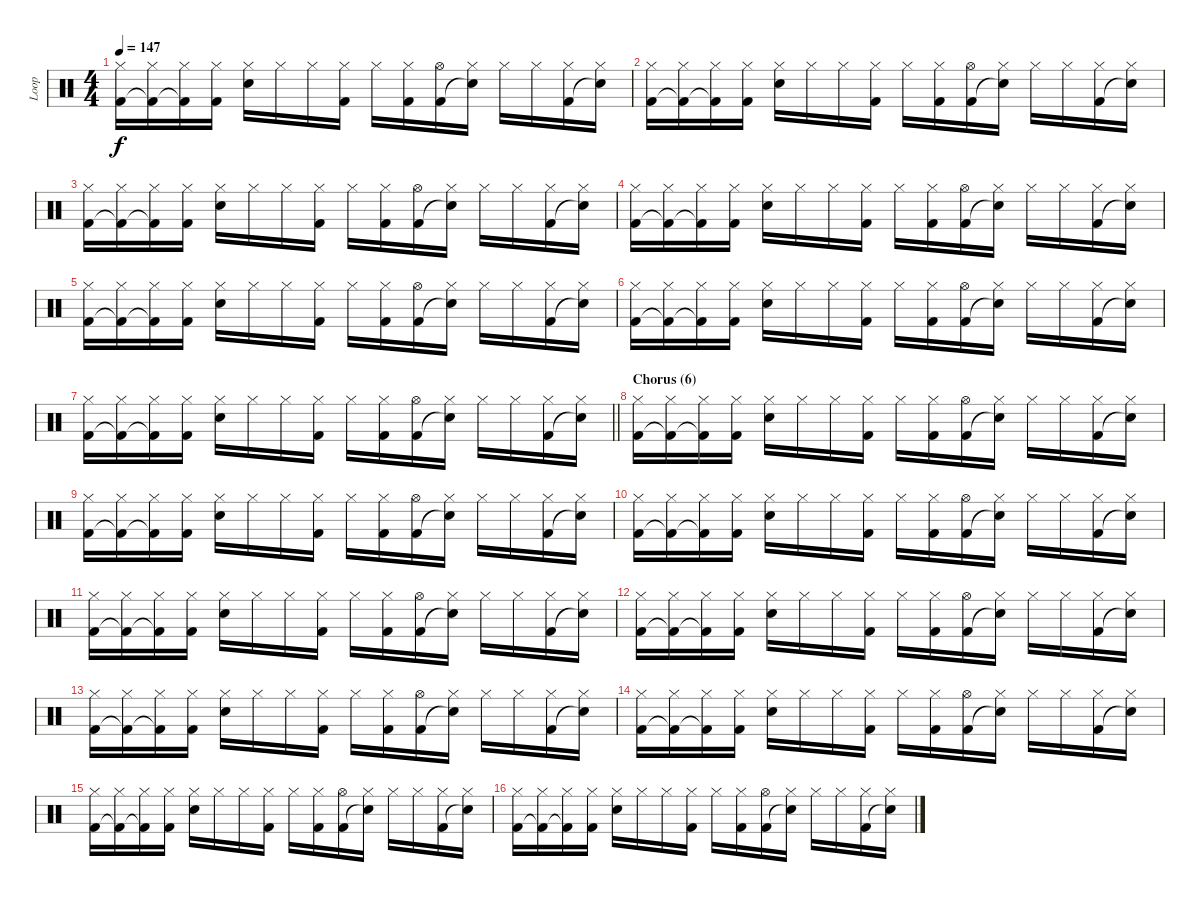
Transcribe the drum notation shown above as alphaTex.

\track ("Loop" "Loop") {instrument percussion}
\staff {score}
\articulation defaults
\ts (4 4)
\tempo 147
\clef neutral
\ks aminor
("Hi-Hat (closed)" "Kick (hit) 2").16{dy f} ("Hi-Hat (closed)" "Kick (hit) 2"{t}).16 ("Hi-Hat (closed)" "Kick (hit) 2"{t}).16 ("Hi-Hat (closed)" "Kick (hit) 2").16 ("Hi-Hat (closed)" "Electric Snare (hit)").16 "Hi-Hat (closed)".16 "Hi-Hat (closed)".16 ("Hi-Hat (closed)" "Kick (hit) 2").16 "Hi-Hat (closed)".16 ("Hi-Hat (closed)" "Kick (hit) 2").16 ("Hi-Hat (open)" "Kick (hit) 2").16 ("Hi-Hat (closed)" "Snare (hit)"{t}).16 "Hi-Hat (closed)".16 "Hi-Hat (closed)".16 ("Hi-Hat (closed)" "Kick (hit) 2").16 ("Hi-Hat (closed)" "Snare (hit)"{t}).16 |
("Hi-Hat (closed)" "Kick (hit) 2").16 ("Hi-Hat (closed)" "Kick (hit) 2"{t}).16 ("Hi-Hat (closed)" "Kick (hit) 2"{t}).16 ("Hi-Hat (closed)" "Kick (hit) 2").16 ("Hi-Hat (closed)" "Electric Snare (hit)").16 "Hi-Hat (closed)".16 "Hi-Hat (closed)".16 ("Hi-Hat (closed)" "Kick (hit) 2").16 "Hi-Hat (closed)".16 ("Hi-Hat (closed)" "Kick (hit) 2").16 ("Hi-Hat (open)" "Kick (hit) 2").16 ("Hi-Hat (closed)" "Snare (hit)"{t}).16 "Hi-Hat (closed)".16 "Hi-Hat (closed)".16 ("Hi-Hat (closed)" "Kick (hit) 2").16 ("Hi-Hat (closed)" "Snare (hit)"{t}).16 |
("Hi-Hat (closed)" "Kick (hit) 2").16 ("Hi-Hat (closed)" "Kick (hit) 2"{t}).16 ("Hi-Hat (closed)" "Kick (hit) 2"{t}).16 ("Hi-Hat (closed)" "Kick (hit) 2").16 ("Hi-Hat (closed)" "Electric Snare (hit)").16 "Hi-Hat (closed)".16 "Hi-Hat (closed)".16 ("Hi-Hat (closed)" "Kick (hit) 2").16 "Hi-Hat (closed)".16 ("Hi-Hat (closed)" "Kick (hit) 2").16 ("Hi-Hat (open)" "Kick (hit) 2").16 ("Hi-Hat (closed)" "Snare (hit)"{t}).16 "Hi-Hat (closed)".16 "Hi-Hat (closed)".16 ("Hi-Hat (closed)" "Kick (hit) 2").16 ("Hi-Hat (closed)" "Snare (hit)"{t}).16 |
("Hi-Hat (closed)" "Kick (hit) 2").16 ("Hi-Hat (closed)" "Kick (hit) 2"{t}).16 ("Hi-Hat (closed)" "Kick (hit) 2"{t}).16 ("Hi-Hat (closed)" "Kick (hit) 2").16 ("Hi-Hat (closed)" "Electric Snare (hit)").16 "Hi-Hat (closed)".16 "Hi-Hat (closed)".16 ("Hi-Hat (closed)" "Kick (hit) 2").16 "Hi-Hat (closed)".16 ("Hi-Hat (closed)" "Kick (hit) 2").16 ("Hi-Hat (open)" "Kick (hit) 2").16 ("Hi-Hat (closed)" "Snare (hit)"{t}).16 "Hi-Hat (closed)".16 "Hi-Hat (closed)".16 ("Hi-Hat (closed)" "Kick (hit) 2").16 ("Hi-Hat (closed)" "Snare (hit)"{t}).16 |
("Hi-Hat (closed)" "Kick (hit) 2").16 ("Hi-Hat (closed)" "Kick (hit) 2"{t}).16 ("Hi-Hat (closed)" "Kick (hit) 2"{t}).16 ("Hi-Hat (closed)" "Kick (hit) 2").16 ("Hi-Hat (closed)" "Electric Snare (hit)").16 "Hi-Hat (closed)".16 "Hi-Hat (closed)".16 ("Hi-Hat (closed)" "Kick (hit) 2").16 "Hi-Hat (closed)".16 ("Hi-Hat (closed)" "Kick (hit) 2").16 ("Hi-Hat (open)" "Kick (hit) 2").16 ("Hi-Hat (closed)" "Snare (hit)"{t}).16 "Hi-Hat (closed)".16 "Hi-Hat (closed)".16 ("Hi-Hat (closed)" "Kick (hit) 2").16 ("Hi-Hat (closed)" "Snare (hit)"{t}).16 |
("Hi-Hat (closed)" "Kick (hit) 2").16 ("Hi-Hat (closed)" "Kick (hit) 2"{t}).16 ("Hi-Hat (closed)" "Kick (hit) 2"{t}).16 ("Hi-Hat (closed)" "Kick (hit) 2").16 ("Hi-Hat (closed)" "Electric Snare (hit)").16 "Hi-Hat (closed)".16 "Hi-Hat (closed)".16 ("Hi-Hat (closed)" "Kick (hit) 2").16 "Hi-Hat (closed)".16 ("Hi-Hat (closed)" "Kick (hit) 2").16 ("Hi-Hat (open)" "Kick (hit) 2").16 ("Hi-Hat (closed)" "Snare (hit)"{t}).16 "Hi-Hat (closed)".16 "Hi-Hat (closed)".16 ("Hi-Hat (closed)" "Kick (hit) 2").16 ("Hi-Hat (closed)" "Snare (hit)"{t}).16 |
\barLineRight lightlight
("Hi-Hat (closed)" "Kick (hit) 2").16 ("Hi-Hat (closed)" "Kick (hit) 2"{t}).16 ("Hi-Hat (closed)" "Kick (hit) 2"{t}).16 ("Hi-Hat (closed)" "Kick (hit) 2").16 ("Hi-Hat (closed)" "Electric Snare (hit)").16 "Hi-Hat (closed)".16 "Hi-Hat (closed)".16 ("Hi-Hat (closed)" "Kick (hit) 2").16 "Hi-Hat (closed)".16 ("Hi-Hat (closed)" "Kick (hit) 2").16 ("Hi-Hat (open)" "Kick (hit) 2").16 ("Hi-Hat (closed)" "Snare (hit)"{t}).16 "Hi-Hat (closed)".16 "Hi-Hat (closed)".16 ("Hi-Hat (closed)" "Kick (hit) 2").16 ("Hi-Hat (closed)" "Snare (hit)"{t}).16 |
\section ("" "Chorus (6)")
("Hi-Hat (closed)" "Kick (hit) 2").16 ("Hi-Hat (closed)" "Kick (hit) 2"{t}).16 ("Hi-Hat (closed)" "Kick (hit) 2"{t}).16 ("Hi-Hat (closed)" "Kick (hit) 2").16 ("Hi-Hat (closed)" "Electric Snare (hit)").16 "Hi-Hat (closed)".16 "Hi-Hat (closed)".16 ("Hi-Hat (closed)" "Kick (hit) 2").16 "Hi-Hat (closed)".16 ("Hi-Hat (closed)" "Kick (hit) 2").16 ("Hi-Hat (open)" "Kick (hit) 2").16 ("Hi-Hat (closed)" "Snare (hit)"{t}).16 "Hi-Hat (closed)".16 "Hi-Hat (closed)".16 ("Hi-Hat (closed)" "Kick (hit) 2").16 ("Hi-Hat (closed)" "Snare (hit)"{t}).16 |
("Hi-Hat (closed)" "Kick (hit) 2").16 ("Hi-Hat (closed)" "Kick (hit) 2"{t}).16 ("Hi-Hat (closed)" "Kick (hit) 2"{t}).16 ("Hi-Hat (closed)" "Kick (hit) 2").16 ("Hi-Hat (closed)" "Electric Snare (hit)").16 "Hi-Hat (closed)".16 "Hi-Hat (closed)".16 ("Hi-Hat (closed)" "Kick (hit) 2").16 "Hi-Hat (closed)".16 ("Hi-Hat (closed)" "Kick (hit) 2").16 ("Hi-Hat (open)" "Kick (hit) 2").16 ("Hi-Hat (closed)" "Snare (hit)"{t}).16 "Hi-Hat (closed)".16 "Hi-Hat (closed)".16 ("Hi-Hat (closed)" "Kick (hit) 2").16 ("Hi-Hat (closed)" "Snare (hit)"{t}).16 |
("Hi-Hat (closed)" "Kick (hit) 2").16 ("Hi-Hat (closed)" "Kick (hit) 2"{t}).16 ("Hi-Hat (closed)" "Kick (hit) 2"{t}).16 ("Hi-Hat (closed)" "Kick (hit) 2").16 ("Hi-Hat (closed)" "Electric Snare (hit)").16 "Hi-Hat (closed)".16 "Hi-Hat (closed)".16 ("Hi-Hat (closed)" "Kick (hit) 2").16 "Hi-Hat (closed)".16 ("Hi-Hat (closed)" "Kick (hit) 2").16 ("Hi-Hat (open)" "Kick (hit) 2").16 ("Hi-Hat (closed)" "Snare (hit)"{t}).16 "Hi-Hat (closed)".16 "Hi-Hat (closed)".16 ("Hi-Hat (closed)" "Kick (hit) 2").16 ("Hi-Hat (closed)" "Snare (hit)"{t}).16 |
("Hi-Hat (closed)" "Kick (hit) 2").16 ("Hi-Hat (closed)" "Kick (hit) 2"{t}).16 ("Hi-Hat (closed)" "Kick (hit) 2"{t}).16 ("Hi-Hat (closed)" "Kick (hit) 2").16 ("Hi-Hat (closed)" "Electric Snare (hit)").16 "Hi-Hat (closed)".16 "Hi-Hat (closed)".16 ("Hi-Hat (closed)" "Kick (hit) 2").16 "Hi-Hat (closed)".16 ("Hi-Hat (closed)" "Kick (hit) 2").16 ("Hi-Hat (open)" "Kick (hit) 2").16 ("Hi-Hat (closed)" "Snare (hit)"{t}).16 "Hi-Hat (closed)".16 "Hi-Hat (closed)".16 ("Hi-Hat (closed)" "Kick (hit) 2").16 ("Hi-Hat (closed)" "Snare (hit)"{t}).16 |
("Hi-Hat (closed)" "Kick (hit) 2").16 ("Hi-Hat (closed)" "Kick (hit) 2"{t}).16 ("Hi-Hat (closed)" "Kick (hit) 2"{t}).16 ("Hi-Hat (closed)" "Kick (hit) 2").16 ("Hi-Hat (closed)" "Electric Snare (hit)").16 "Hi-Hat (closed)".16 "Hi-Hat (closed)".16 ("Hi-Hat (closed)" "Kick (hit) 2").16 "Hi-Hat (closed)".16 ("Hi-Hat (closed)" "Kick (hit) 2").16 ("Hi-Hat (open)" "Kick (hit) 2").16 ("Hi-Hat (closed)" "Snare (hit)"{t}).16 "Hi-Hat (closed)".16 "Hi-Hat (closed)".16 ("Hi-Hat (closed)" "Kick (hit) 2").16 ("Hi-Hat (closed)" "Snare (hit)"{t}).16 |
("Hi-Hat (closed)" "Kick (hit) 2").16 ("Hi-Hat (closed)" "Kick (hit) 2"{t}).16 ("Hi-Hat (closed)" "Kick (hit) 2"{t}).16 ("Hi-Hat (closed)" "Kick (hit) 2").16 ("Hi-Hat (closed)" "Electric Snare (hit)").16 "Hi-Hat (closed)".16 "Hi-Hat (closed)".16 ("Hi-Hat (closed)" "Kick (hit) 2").16 "Hi-Hat (closed)".16 ("Hi-Hat (closed)" "Kick (hit) 2").16 ("Hi-Hat (open)" "Kick (hit) 2").16 ("Hi-Hat (closed)" "Snare (hit)"{t}).16 "Hi-Hat (closed)".16 "Hi-Hat (closed)".16 ("Hi-Hat (closed)" "Kick (hit) 2").16 ("Hi-Hat (closed)" "Snare (hit)"{t}).16 |
("Hi-Hat (closed)" "Kick (hit) 2").16 ("Hi-Hat (closed)" "Kick (hit) 2"{t}).16 ("Hi-Hat (closed)" "Kick (hit) 2"{t}).16 ("Hi-Hat (closed)" "Kick (hit) 2").16 ("Hi-Hat (closed)" "Electric Snare (hit)").16 "Hi-Hat (closed)".16 "Hi-Hat (closed)".16 ("Hi-Hat (closed)" "Kick (hit) 2").16 "Hi-Hat (closed)".16 ("Hi-Hat (closed)" "Kick (hit) 2").16 ("Hi-Hat (open)" "Kick (hit) 2").16 ("Hi-Hat (closed)" "Snare (hit)"{t}).16 "Hi-Hat (closed)".16 "Hi-Hat (closed)".16 ("Hi-Hat (closed)" "Kick (hit) 2").16 ("Hi-Hat (closed)" "Snare (hit)"{t}).16 |
("Hi-Hat (closed)" "Kick (hit) 2").16 ("Hi-Hat (closed)" "Kick (hit) 2"{t}).16 ("Hi-Hat (closed)" "Kick (hit) 2"{t}).16 ("Hi-Hat (closed)" "Kick (hit) 2").16 ("Hi-Hat (closed)" "Electric Snare (hit)").16 "Hi-Hat (closed)".16 "Hi-Hat (closed)".16 ("Hi-Hat (closed)" "Kick (hit) 2").16 "Hi-Hat (closed)".16 ("Hi-Hat (closed)" "Kick (hit) 2").16 ("Hi-Hat (open)" "Kick (hit) 2").16 ("Hi-Hat (closed)" "Snare (hit)"{t}).16 "Hi-Hat (closed)".16 "Hi-Hat (closed)".16 ("Hi-Hat (closed)" "Kick (hit) 2").16 ("Hi-Hat (closed)" "Snare (hit)"{t}).16 |
("Hi-Hat (closed)" "Kick (hit) 2").16 ("Hi-Hat (closed)" "Kick (hit) 2"{t}).16 ("Hi-Hat (closed)" "Kick (hit) 2"{t}).16 ("Hi-Hat (closed)" "Kick (hit) 2").16 ("Hi-Hat (closed)" "Electric Snare (hit)").16 "Hi-Hat (closed)".16 "Hi-Hat (closed)".16 ("Hi-Hat (closed)" "Kick (hit) 2").16 "Hi-Hat (closed)".16 ("Hi-Hat (closed)" "Kick (hit) 2").16 ("Hi-Hat (open)" "Kick (hit) 2").16 ("Hi-Hat (closed)" "Snare (hit)"{t}).16 "Hi-Hat (closed)".16 "Hi-Hat (closed)".16 ("Hi-Hat (closed)" "Kick (hit) 2").16 ("Hi-Hat (closed)" "Snare (hit)"{t}).16
